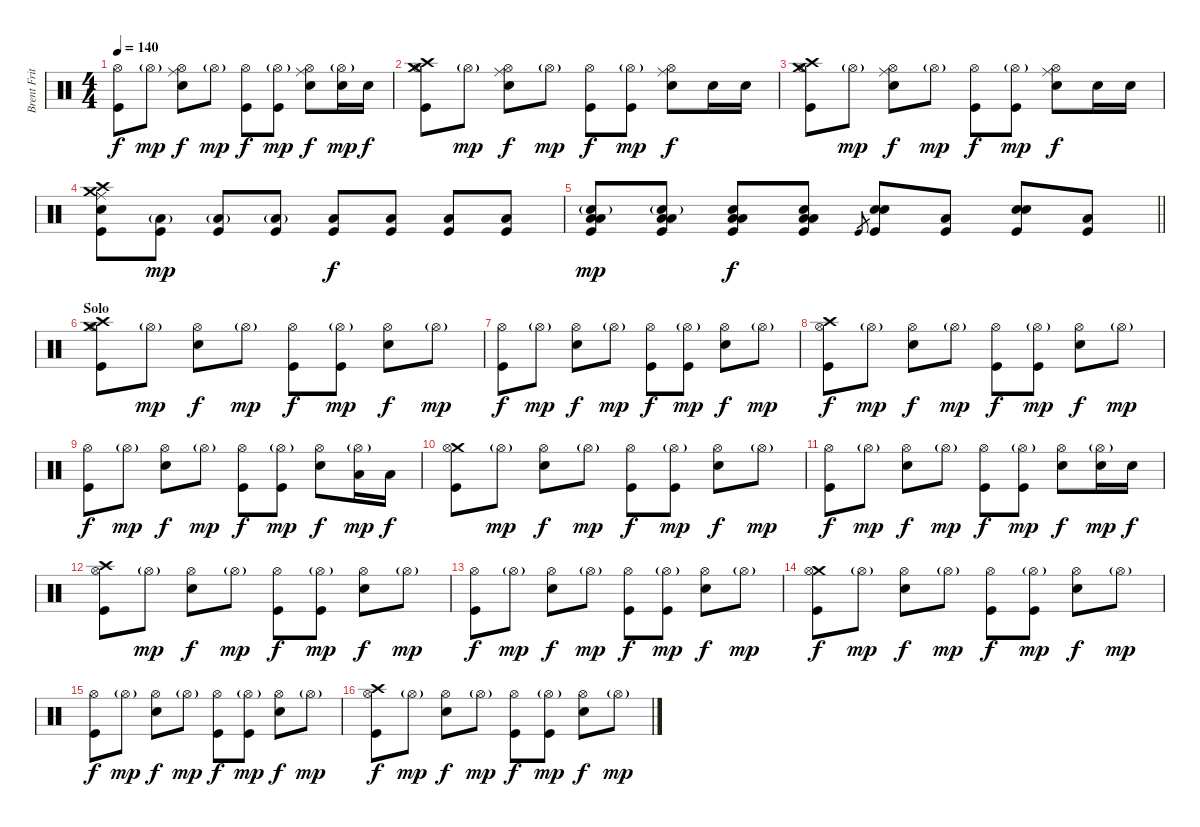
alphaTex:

\track ("Brent Fritz" "Brent Frit") {instrument percussion}
\staff {score}
\articulation defaults
\ts (4 4)
\tempo 140
\clef neutral
\ks c
("Hi-Hat (open)" "Kick (hit)").8{dy f} "Hi-Hat (open)"{g}.8{dy mp} ("Hi-Hat (open)" "Ride (middle)" "Electric Snare (hit)").8{dy f} "Hi-Hat (open)"{g}.8{dy mp} ("Hi-Hat (open)" "Kick (hit)").8{dy f} ("Hi-Hat (open)"{g} "Kick (hit)").8{dy mp} ("Hi-Hat (open)" "Ride (middle)" "Electric Snare (hit)").8{dy f} ("Hi-Hat (open)"{g} "Electric Snare (hit)").16{dy mp} "Electric Snare (hit)".16{dy f} |
("Crash medium (hit)" "Crash high (hit)" "Hi-Hat (open)" "Kick (hit)").8 "Hi-Hat (open)"{g}.8{dy mp} ("Hi-Hat (open)" "Ride (middle)" "Electric Snare (hit)").8{dy f} "Hi-Hat (open)"{g}.8{dy mp} ("Hi-Hat (open)" "Kick (hit)").8{dy f} ("Hi-Hat (open)"{g} "Kick (hit)").8{dy mp} ("Hi-Hat (open)" "Ride (middle)" "Electric Snare (hit)").8{dy f} "Electric Snare (hit)".16 "Electric Snare (hit)".16 |
("Crash medium (hit)" "Crash high (hit)" "Hi-Hat (open)" "Kick (hit)").8 "Hi-Hat (open)"{g}.8{dy mp} ("Hi-Hat (open)" "Ride (middle)" "Electric Snare (hit)").8{dy f} "Hi-Hat (open)"{g}.8{dy mp} ("Hi-Hat (open)" "Kick (hit)").8{dy f} ("Hi-Hat (open)"{g} "Kick (hit)").8{dy mp} ("Hi-Hat (open)" "Ride (middle)" "Electric Snare (hit)").8{dy f} "Electric Snare (hit)".16 "Electric Snare (hit)".16 |
("Crash medium (hit)" "Crash high (hit)" "Ride (middle)" "Electric Snare (hit)" "Kick (hit)").8 ("Low Floor Tom (hit)"{g} "Kick (hit)").8{dy mp} ("Low Floor Tom (hit)"{g} "Kick (hit)").8 ("Low Floor Tom (hit)"{g} "Kick (hit)").8 ("Low Floor Tom (hit)" "Kick (hit)").8{dy f} ("Low Floor Tom (hit)" "Kick (hit)").8 ("Low Floor Tom (hit)" "Kick (hit)").8 ("Low Floor Tom (hit)" "Kick (hit)").8 |
\barLineRight lightlight
("Electric Snare (hit)"{g} "Low Floor Tom (hit)" "Low Floor Tom (hit)" "Kick (hit)").8{dy mp} ("Electric Snare (hit)"{g} "Low Floor Tom (hit)" "Low Floor Tom (hit)" "Kick (hit)").8 ("Electric Snare (hit)" "Low Floor Tom (hit)" "Low Floor Tom (hit)" "Kick (hit)").8{dy f} ("Electric Snare (hit)" "Low Floor Tom (hit)" "Low Floor Tom (hit)" "Kick (hit)").8 "Kick (hit)".8{gr} ("Electric Snare (hit)" "Electric Snare (hit)" "Kick (hit)").8 ("Low Floor Tom (hit)" "Kick (hit)").8 ("Electric Snare (hit)" "Electric Snare (hit)" "Kick (hit)").8 ("Low Floor Tom (hit)" "Kick (hit)").8 |
\section ("" "Solo")
("Crash high (hit)" "Crash medium (hit)" "Hi-Hat (open)" "Kick (hit)").8 "Hi-Hat (open)"{g}.8{dy mp} ("Hi-Hat (open)" "Electric Snare (hit)").8{dy f} "Hi-Hat (open)"{g}.8{dy mp} ("Hi-Hat (open)" "Kick (hit)").8{dy f} ("Hi-Hat (open)"{g} "Kick (hit)").8{dy mp} ("Hi-Hat (open)" "Electric Snare (hit)").8{dy f} "Hi-Hat (open)"{g}.8{dy mp} |
("Hi-Hat (open)" "Kick (hit)").8{dy f} "Hi-Hat (open)"{g}.8{dy mp} ("Hi-Hat (open)" "Electric Snare (hit)").8{dy f} "Hi-Hat (open)"{g}.8{dy mp} ("Hi-Hat (open)" "Kick (hit)").8{dy f} ("Hi-Hat (open)"{g} "Kick (hit)").8{dy mp} ("Hi-Hat (open)" "Electric Snare (hit)").8{dy f} "Hi-Hat (open)"{g}.8{dy mp} |
("Crash high (hit)" "Hi-Hat (open)" "Kick (hit)").8{dy f} "Hi-Hat (open)"{g}.8{dy mp} ("Hi-Hat (open)" "Electric Snare (hit)").8{dy f} "Hi-Hat (open)"{g}.8{dy mp} ("Hi-Hat (open)" "Kick (hit)").8{dy f} ("Hi-Hat (open)"{g} "Kick (hit)").8{dy mp} ("Hi-Hat (open)" "Electric Snare (hit)").8{dy f} "Hi-Hat (open)"{g}.8{dy mp} |
("Hi-Hat (open)" "Kick (hit)").8{dy f} "Hi-Hat (open)"{g}.8{dy mp} ("Hi-Hat (open)" "Electric Snare (hit)").8{dy f} "Hi-Hat (open)"{g}.8{dy mp} ("Hi-Hat (open)" "Kick (hit)").8{dy f} ("Hi-Hat (open)"{g} "Kick (hit)").8{dy mp} ("Hi-Hat (open)" "Electric Snare (hit)").8{dy f} ("Hi-Hat (open)"{g} "Low Floor Tom (hit)").16{dy mp} "Low Floor Tom (hit)".16{dy f} |
("Crash medium (hit)" "Hi-Hat (open)" "Kick (hit)").8 "Hi-Hat (open)"{g}.8{dy mp} ("Hi-Hat (open)" "Electric Snare (hit)").8{dy f} "Hi-Hat (open)"{g}.8{dy mp} ("Hi-Hat (open)" "Kick (hit)").8{dy f} ("Hi-Hat (open)"{g} "Kick (hit)").8{dy mp} ("Hi-Hat (open)" "Electric Snare (hit)").8{dy f} "Hi-Hat (open)"{g}.8{dy mp} |
("Hi-Hat (open)" "Kick (hit)").8{dy f} "Hi-Hat (open)"{g}.8{dy mp} ("Hi-Hat (open)" "Electric Snare (hit)").8{dy f} "Hi-Hat (open)"{g}.8{dy mp} ("Hi-Hat (open)" "Kick (hit)").8{dy f} ("Hi-Hat (open)"{g} "Kick (hit)").8{dy mp} ("Hi-Hat (open)" "Electric Snare (hit)").8{dy f} ("Hi-Hat (open)"{g} "Electric Snare (hit)").16{dy mp} "Electric Snare (hit)".16{dy f} |
("Crash high (hit)" "Hi-Hat (open)" "Kick (hit)").8 "Hi-Hat (open)"{g}.8{dy mp} ("Hi-Hat (open)" "Electric Snare (hit)").8{dy f} "Hi-Hat (open)"{g}.8{dy mp} ("Hi-Hat (open)" "Kick (hit)").8{dy f} ("Hi-Hat (open)"{g} "Kick (hit)").8{dy mp} ("Hi-Hat (open)" "Electric Snare (hit)").8{dy f} "Hi-Hat (open)"{g}.8{dy mp} |
("Hi-Hat (open)" "Kick (hit)").8{dy f} "Hi-Hat (open)"{g}.8{dy mp} ("Hi-Hat (open)" "Electric Snare (hit)").8{dy f} "Hi-Hat (open)"{g}.8{dy mp} ("Hi-Hat (open)" "Kick (hit)").8{dy f} ("Hi-Hat (open)"{g} "Kick (hit)").8{dy mp} ("Hi-Hat (open)" "Electric Snare (hit)").8{dy f} "Hi-Hat (open)"{g}.8{dy mp} |
("Crash medium (hit)" "Hi-Hat (open)" "Kick (hit)").8{dy f} "Hi-Hat (open)"{g}.8{dy mp} ("Hi-Hat (open)" "Electric Snare (hit)").8{dy f} "Hi-Hat (open)"{g}.8{dy mp} ("Hi-Hat (open)" "Kick (hit)").8{dy f} ("Hi-Hat (open)"{g} "Kick (hit)").8{dy mp} ("Hi-Hat (open)" "Electric Snare (hit)").8{dy f} "Hi-Hat (open)"{g}.8{dy mp} |
("Hi-Hat (open)" "Kick (hit)").8{dy f} "Hi-Hat (open)"{g}.8{dy mp} ("Hi-Hat (open)" "Electric Snare (hit)").8{dy f} "Hi-Hat (open)"{g}.8{dy mp} ("Hi-Hat (open)" "Kick (hit)").8{dy f} ("Hi-Hat (open)"{g} "Kick (hit)").8{dy mp} ("Hi-Hat (open)" "Electric Snare (hit)").8{dy f} "Hi-Hat (open)"{g}.8{dy mp} |
("Crash high (hit)" "Hi-Hat (open)" "Kick (hit)").8{dy f} "Hi-Hat (open)"{g}.8{dy mp} ("Hi-Hat (open)" "Electric Snare (hit)").8{dy f} "Hi-Hat (open)"{g}.8{dy mp} ("Hi-Hat (open)" "Kick (hit)").8{dy f} ("Hi-Hat (open)"{g} "Kick (hit)").8{dy mp} ("Hi-Hat (open)" "Electric Snare (hit)").8{dy f} "Hi-Hat (open)"{g}.8{dy mp}
